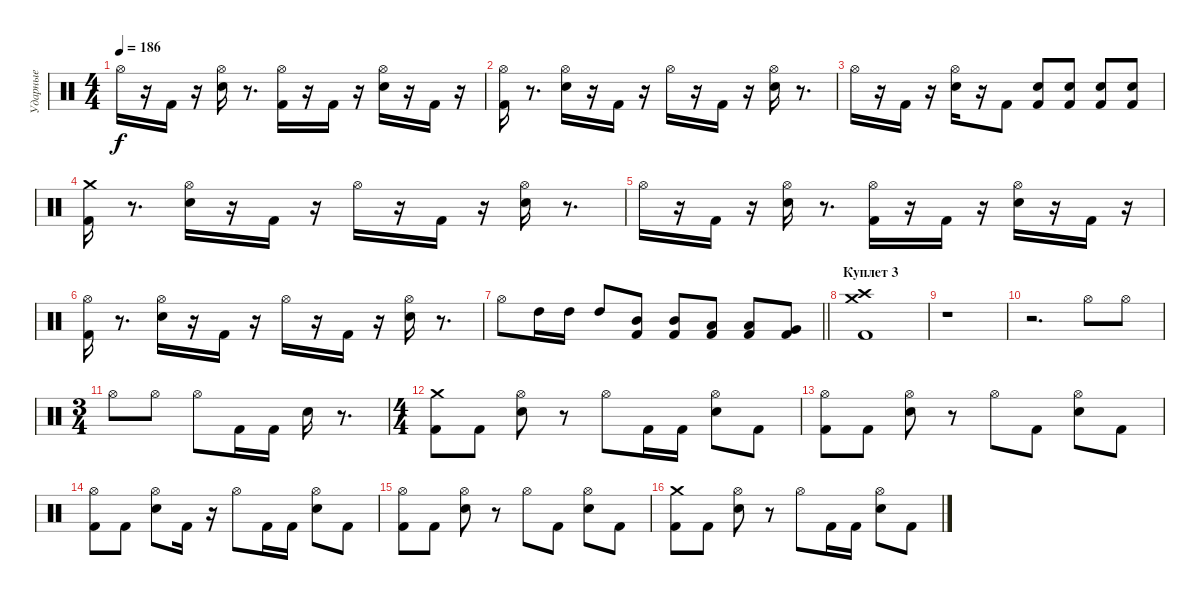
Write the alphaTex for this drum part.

\track ("Ударные" "Ударные") {instrument percussion}
\staff {score}
\articulation defaults
\ts (4 4)
\tempo 186
\clef neutral
\ks c "Hi-Hat (open)".16{dy f}
r.16 "Kick (hit) 2".16 r.16 ("Snare (hit) 2" "Hi-Hat (open)").16 r.8{d} ("Kick (hit) 2" "Hi-Hat (open)").16 r.16 "Kick (hit) 2".16 r.16 ("Snare (hit) 2" "Hi-Hat (open)").16 r.16 "Kick (hit) 2".16 r.16 |
("Kick (hit) 2" "Hi-Hat (open)").16 r.8{d} ("Snare (hit) 2" "Hi-Hat (open)").16 r.16 "Kick (hit) 2".16 r.16 "Hi-Hat (open)".16 r.16 "Kick (hit) 2".16 r.16 ("Snare (hit) 2" "Hi-Hat (open)").16 r.8{d} |
"Hi-Hat (open)".16 r.16 "Kick (hit) 2".16 r.16 ("Snare (hit) 2" "Hi-Hat (open)").16 r.16 "Kick (hit) 2".8 ("Kick (hit) 2" "Snare (hit) 2").8 ("Kick (hit) 2" "Snare (hit) 2").8 ("Kick (hit) 2" "Snare (hit) 2").8 ("Kick (hit) 2" "Snare (hit) 2").8 |
("Kick (hit) 2" "Crash medium (hit)").16 r.8{d} ("Snare (hit) 2" "Hi-Hat (open)").16 r.16 "Kick (hit) 2".16 r.16 "Hi-Hat (open)".16 r.16 "Kick (hit) 2".16 r.16 ("Snare (hit) 2" "Hi-Hat (open)").16 r.8{d} |
"Hi-Hat (open)".16 r.16 "Kick (hit) 2".16 r.16 ("Snare (hit) 2" "Hi-Hat (open)").16 r.8{d} ("Kick (hit) 2" "Hi-Hat (open)").16 r.16 "Kick (hit) 2".16 r.16 ("Snare (hit) 2" "Hi-Hat (open)").16 r.16 "Kick (hit) 2".16 r.16 |
("Kick (hit) 2" "Hi-Hat (open)").16 r.8{d} ("Snare (hit) 2" "Hi-Hat (open)").16 r.16 "Kick (hit) 2".16 r.16 "Hi-Hat (open)".16 r.16 "Kick (hit) 2".16 r.16 ("Snare (hit) 2" "Hi-Hat (open)").16 r.8{d} |
\barLineRight lightlight "Hi-Hat (open)".8 "High Tom (hit)".16 "High Tom (hit)".16 "High Tom (hit)".8
("Kick (hit) 2" "Mid Tom (hit)").8 ("Kick (hit) 2" "Mid Tom (hit)").8 ("Kick (hit) 2" "Low Tom (hit)").8 ("Kick (hit) 2" "Low Tom (hit)").8 ("Kick (hit) 2" "Very Low Tom (hit)").8 |
\section ("" "Куплет 3")
("Kick (hit) 2" "Crash high (hit)" "Crash medium (hit)").1 |
r.1 |
r.2{d} "Hi-Hat (open)".8 "Hi-Hat (open)".8 |
\ts (3 4)
"Hi-Hat (open)".8 "Hi-Hat (open)".8 "Hi-Hat (open)".8 "Kick (hit) 2".16 "Kick (hit) 2".16 "Snare (hit) 2".16 r.8{d} |
\ts (4 4)
("Kick (hit) 2" "Crash medium (hit)").8 "Kick (hit) 2".8 ("Snare (hit) 2" "Hi-Hat (open)").8 r.8 "Hi-Hat (open)".8 "Kick (hit) 2".16 "Kick (hit) 2".16 ("Snare (hit) 2" "Hi-Hat (open)").8 "Kick (hit) 2".8 |
("Kick (hit) 2" "Hi-Hat (open)").8 "Kick (hit) 2".8 ("Snare (hit) 2" "Hi-Hat (open)").8 r.8 "Hi-Hat (open)".8 "Kick (hit) 2".8 ("Snare (hit) 2" "Hi-Hat (open)").8 "Kick (hit) 2".8 |
("Kick (hit) 2" "Hi-Hat (open)").8 "Kick (hit) 2".8 ("Snare (hit) 2" "Hi-Hat (open)").8 "Kick (hit) 2".16 r.16 "Hi-Hat (open)".8 "Kick (hit) 2".16 "Kick (hit) 2".16 ("Snare (hit) 2" "Hi-Hat (open)").8 "Kick (hit) 2".8 |
("Kick (hit) 2" "Hi-Hat (open)").8 "Kick (hit) 2".8 ("Snare (hit) 2" "Hi-Hat (open)").8 r.8 "Hi-Hat (open)".8 "Kick (hit) 2".8 ("Snare (hit) 2" "Hi-Hat (open)").8 "Kick (hit) 2".8 |
("Kick (hit) 2" "Crash medium (hit)").8 "Kick (hit) 2".8 ("Snare (hit) 2" "Hi-Hat (open)").8 r.8 "Hi-Hat (open)".8 "Kick (hit) 2".16 "Kick (hit) 2".16 ("Snare (hit) 2" "Hi-Hat (open)").8 "Kick (hit) 2".8
